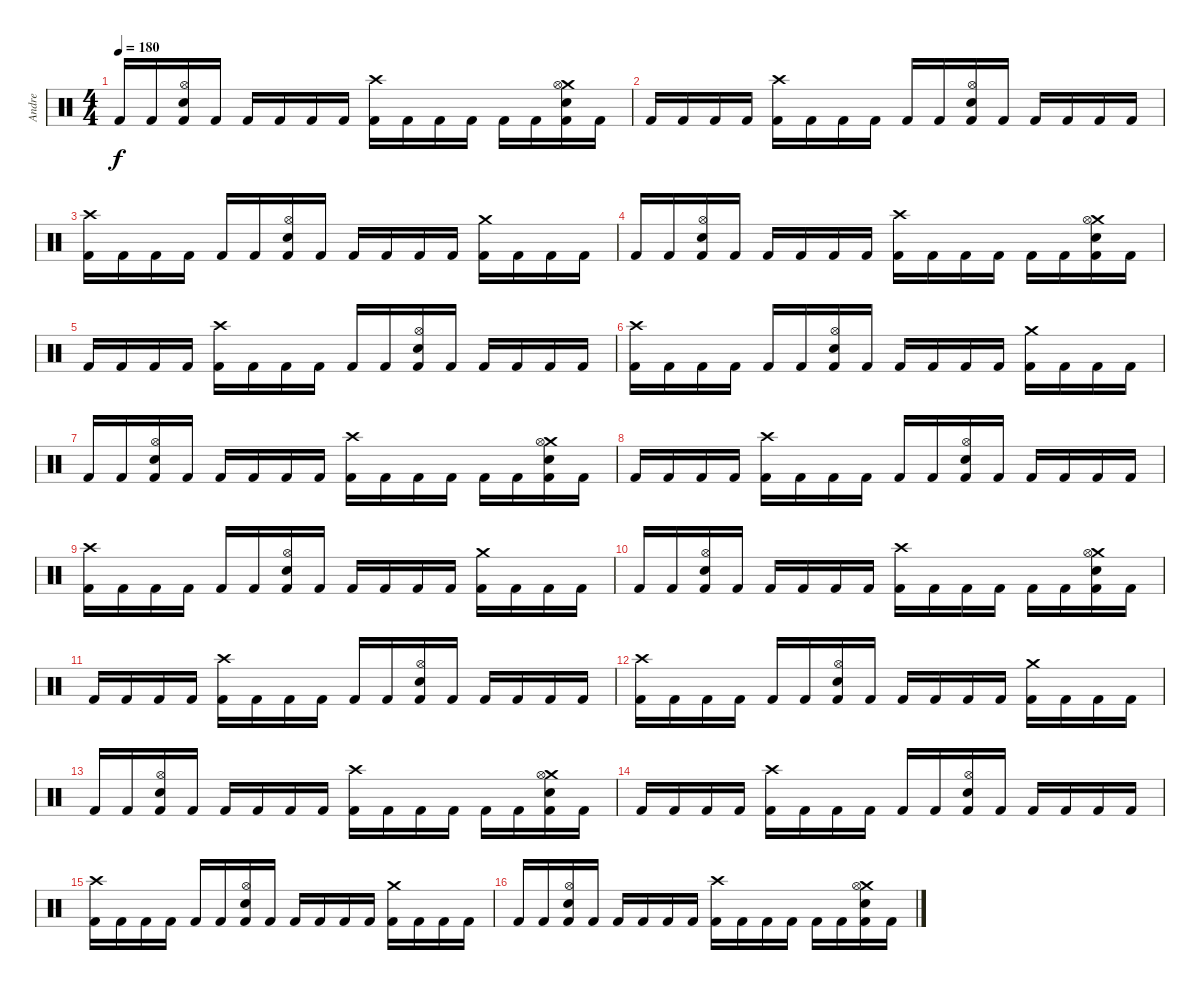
\track ("Andre" "Andre") {instrument percussion}
\staff {score}
\articulation defaults
\ts (4 4)
\tempo 180
\clef neutral
\ks c "Kick (hit) 2".16{dy f} "Kick (hit) 2".16
("Hi-Hat (open)" "Snare (hit) 2" "Kick (hit) 2").16 "Kick (hit) 2".16 "Kick (hit) 2".16 "Kick (hit) 2".16 "Kick (hit) 2".16 "Kick (hit) 2".16 ("Crash high (hit)" "Kick (hit) 2").16 "Kick (hit) 2".16 "Kick (hit) 2".16 "Kick (hit) 2".16 "Kick (hit) 2".16 "Kick (hit) 2".16 ("Crash medium (hit)" "Hi-Hat (open)" "Snare (hit) 2" "Kick (hit) 2").16 "Kick (hit) 2".16 |
"Kick (hit) 2".16 "Kick (hit) 2".16 "Kick (hit) 2".16 "Kick (hit) 2".16 ("Crash high (hit)" "Kick (hit) 2").16 "Kick (hit) 2".16 "Kick (hit) 2".16 "Kick (hit) 2".16 "Kick (hit) 2".16 "Kick (hit) 2".16 ("Hi-Hat (open)" "Snare (hit) 2" "Kick (hit) 2").16 "Kick (hit) 2".16 "Kick (hit) 2".16 "Kick (hit) 2".16 "Kick (hit) 2".16 "Kick (hit) 2".16 |
("Crash high (hit)" "Kick (hit) 2").16 "Kick (hit) 2".16 "Kick (hit) 2".16 "Kick (hit) 2".16 "Kick (hit) 2".16 "Kick (hit) 2".16 ("Hi-Hat (open)" "Snare (hit) 2" "Kick (hit) 2").16 "Kick (hit) 2".16 "Kick (hit) 2".16 "Kick (hit) 2".16 "Kick (hit) 2".16 "Kick (hit) 2".16 ("Crash medium (hit)" "Kick (hit) 2").16 "Kick (hit) 2".16 "Kick (hit) 2".16 "Kick (hit) 2".16 |
"Kick (hit) 2".16 "Kick (hit) 2".16 ("Hi-Hat (open)" "Snare (hit) 2" "Kick (hit) 2").16 "Kick (hit) 2".16 "Kick (hit) 2".16 "Kick (hit) 2".16 "Kick (hit) 2".16 "Kick (hit) 2".16 ("Crash high (hit)" "Kick (hit) 2").16 "Kick (hit) 2".16 "Kick (hit) 2".16 "Kick (hit) 2".16 "Kick (hit) 2".16 "Kick (hit) 2".16 ("Crash medium (hit)" "Hi-Hat (open)" "Snare (hit) 2" "Kick (hit) 2").16 "Kick (hit) 2".16 |
"Kick (hit) 2".16 "Kick (hit) 2".16 "Kick (hit) 2".16 "Kick (hit) 2".16 ("Crash high (hit)" "Kick (hit) 2").16 "Kick (hit) 2".16 "Kick (hit) 2".16 "Kick (hit) 2".16 "Kick (hit) 2".16 "Kick (hit) 2".16 ("Hi-Hat (open)" "Snare (hit) 2" "Kick (hit) 2").16 "Kick (hit) 2".16 "Kick (hit) 2".16 "Kick (hit) 2".16 "Kick (hit) 2".16 "Kick (hit) 2".16 |
("Crash high (hit)" "Kick (hit) 2").16 "Kick (hit) 2".16 "Kick (hit) 2".16 "Kick (hit) 2".16 "Kick (hit) 2".16 "Kick (hit) 2".16 ("Hi-Hat (open)" "Snare (hit) 2" "Kick (hit) 2").16 "Kick (hit) 2".16 "Kick (hit) 2".16 "Kick (hit) 2".16 "Kick (hit) 2".16 "Kick (hit) 2".16 ("Crash medium (hit)" "Kick (hit) 2").16 "Kick (hit) 2".16 "Kick (hit) 2".16 "Kick (hit) 2".16 |
"Kick (hit) 2".16 "Kick (hit) 2".16 ("Hi-Hat (open)" "Snare (hit) 2" "Kick (hit) 2").16 "Kick (hit) 2".16 "Kick (hit) 2".16 "Kick (hit) 2".16 "Kick (hit) 2".16 "Kick (hit) 2".16 ("Crash high (hit)" "Kick (hit) 2").16 "Kick (hit) 2".16 "Kick (hit) 2".16 "Kick (hit) 2".16 "Kick (hit) 2".16 "Kick (hit) 2".16 ("Crash medium (hit)" "Hi-Hat (open)" "Snare (hit) 2" "Kick (hit) 2").16 "Kick (hit) 2".16 |
"Kick (hit) 2".16 "Kick (hit) 2".16 "Kick (hit) 2".16 "Kick (hit) 2".16 ("Crash high (hit)" "Kick (hit) 2").16 "Kick (hit) 2".16 "Kick (hit) 2".16 "Kick (hit) 2".16 "Kick (hit) 2".16 "Kick (hit) 2".16 ("Hi-Hat (open)" "Snare (hit) 2" "Kick (hit) 2").16 "Kick (hit) 2".16 "Kick (hit) 2".16 "Kick (hit) 2".16 "Kick (hit) 2".16 "Kick (hit) 2".16 |
("Crash high (hit)" "Kick (hit) 2").16 "Kick (hit) 2".16 "Kick (hit) 2".16 "Kick (hit) 2".16 "Kick (hit) 2".16 "Kick (hit) 2".16 ("Hi-Hat (open)" "Snare (hit) 2" "Kick (hit) 2").16 "Kick (hit) 2".16 "Kick (hit) 2".16 "Kick (hit) 2".16 "Kick (hit) 2".16 "Kick (hit) 2".16 ("Crash medium (hit)" "Kick (hit) 2").16 "Kick (hit) 2".16 "Kick (hit) 2".16 "Kick (hit) 2".16 |
"Kick (hit) 2".16 "Kick (hit) 2".16 ("Hi-Hat (open)" "Snare (hit) 2" "Kick (hit) 2").16 "Kick (hit) 2".16 "Kick (hit) 2".16 "Kick (hit) 2".16 "Kick (hit) 2".16 "Kick (hit) 2".16 ("Crash high (hit)" "Kick (hit) 2").16 "Kick (hit) 2".16 "Kick (hit) 2".16 "Kick (hit) 2".16 "Kick (hit) 2".16 "Kick (hit) 2".16 ("Crash medium (hit)" "Hi-Hat (open)" "Snare (hit) 2" "Kick (hit) 2").16 "Kick (hit) 2".16 |
"Kick (hit) 2".16 "Kick (hit) 2".16 "Kick (hit) 2".16 "Kick (hit) 2".16 ("Crash high (hit)" "Kick (hit) 2").16 "Kick (hit) 2".16 "Kick (hit) 2".16 "Kick (hit) 2".16 "Kick (hit) 2".16 "Kick (hit) 2".16 ("Hi-Hat (open)" "Snare (hit) 2" "Kick (hit) 2").16 "Kick (hit) 2".16 "Kick (hit) 2".16 "Kick (hit) 2".16 "Kick (hit) 2".16 "Kick (hit) 2".16 |
("Crash high (hit)" "Kick (hit) 2").16 "Kick (hit) 2".16 "Kick (hit) 2".16 "Kick (hit) 2".16 "Kick (hit) 2".16 "Kick (hit) 2".16 ("Hi-Hat (open)" "Snare (hit) 2" "Kick (hit) 2").16 "Kick (hit) 2".16 "Kick (hit) 2".16 "Kick (hit) 2".16 "Kick (hit) 2".16 "Kick (hit) 2".16 ("Crash medium (hit)" "Kick (hit) 2").16 "Kick (hit) 2".16 "Kick (hit) 2".16 "Kick (hit) 2".16 |
"Kick (hit) 2".16 "Kick (hit) 2".16 ("Hi-Hat (open)" "Snare (hit) 2" "Kick (hit) 2").16 "Kick (hit) 2".16 "Kick (hit) 2".16 "Kick (hit) 2".16 "Kick (hit) 2".16 "Kick (hit) 2".16 ("Crash high (hit)" "Kick (hit) 2").16 "Kick (hit) 2".16 "Kick (hit) 2".16 "Kick (hit) 2".16 "Kick (hit) 2".16 "Kick (hit) 2".16 ("Crash medium (hit)" "Hi-Hat (open)" "Snare (hit) 2" "Kick (hit) 2").16 "Kick (hit) 2".16 |
"Kick (hit) 2".16 "Kick (hit) 2".16 "Kick (hit) 2".16 "Kick (hit) 2".16 ("Crash high (hit)" "Kick (hit) 2").16 "Kick (hit) 2".16 "Kick (hit) 2".16 "Kick (hit) 2".16 "Kick (hit) 2".16 "Kick (hit) 2".16 ("Hi-Hat (open)" "Snare (hit) 2" "Kick (hit) 2").16 "Kick (hit) 2".16 "Kick (hit) 2".16 "Kick (hit) 2".16 "Kick (hit) 2".16 "Kick (hit) 2".16 |
("Crash high (hit)" "Kick (hit) 2").16 "Kick (hit) 2".16 "Kick (hit) 2".16 "Kick (hit) 2".16 "Kick (hit) 2".16 "Kick (hit) 2".16 ("Hi-Hat (open)" "Snare (hit) 2" "Kick (hit) 2").16 "Kick (hit) 2".16 "Kick (hit) 2".16 "Kick (hit) 2".16 "Kick (hit) 2".16 "Kick (hit) 2".16 ("Crash medium (hit)" "Kick (hit) 2").16 "Kick (hit) 2".16 "Kick (hit) 2".16 "Kick (hit) 2".16 |
"Kick (hit) 2".16 "Kick (hit) 2".16 ("Hi-Hat (open)" "Snare (hit) 2" "Kick (hit) 2").16 "Kick (hit) 2".16 "Kick (hit) 2".16 "Kick (hit) 2".16 "Kick (hit) 2".16 "Kick (hit) 2".16 ("Crash high (hit)" "Kick (hit) 2").16 "Kick (hit) 2".16 "Kick (hit) 2".16 "Kick (hit) 2".16 "Kick (hit) 2".16 "Kick (hit) 2".16 ("Crash medium (hit)" "Hi-Hat (open)" "Snare (hit) 2" "Kick (hit) 2").16 "Kick (hit) 2".16
